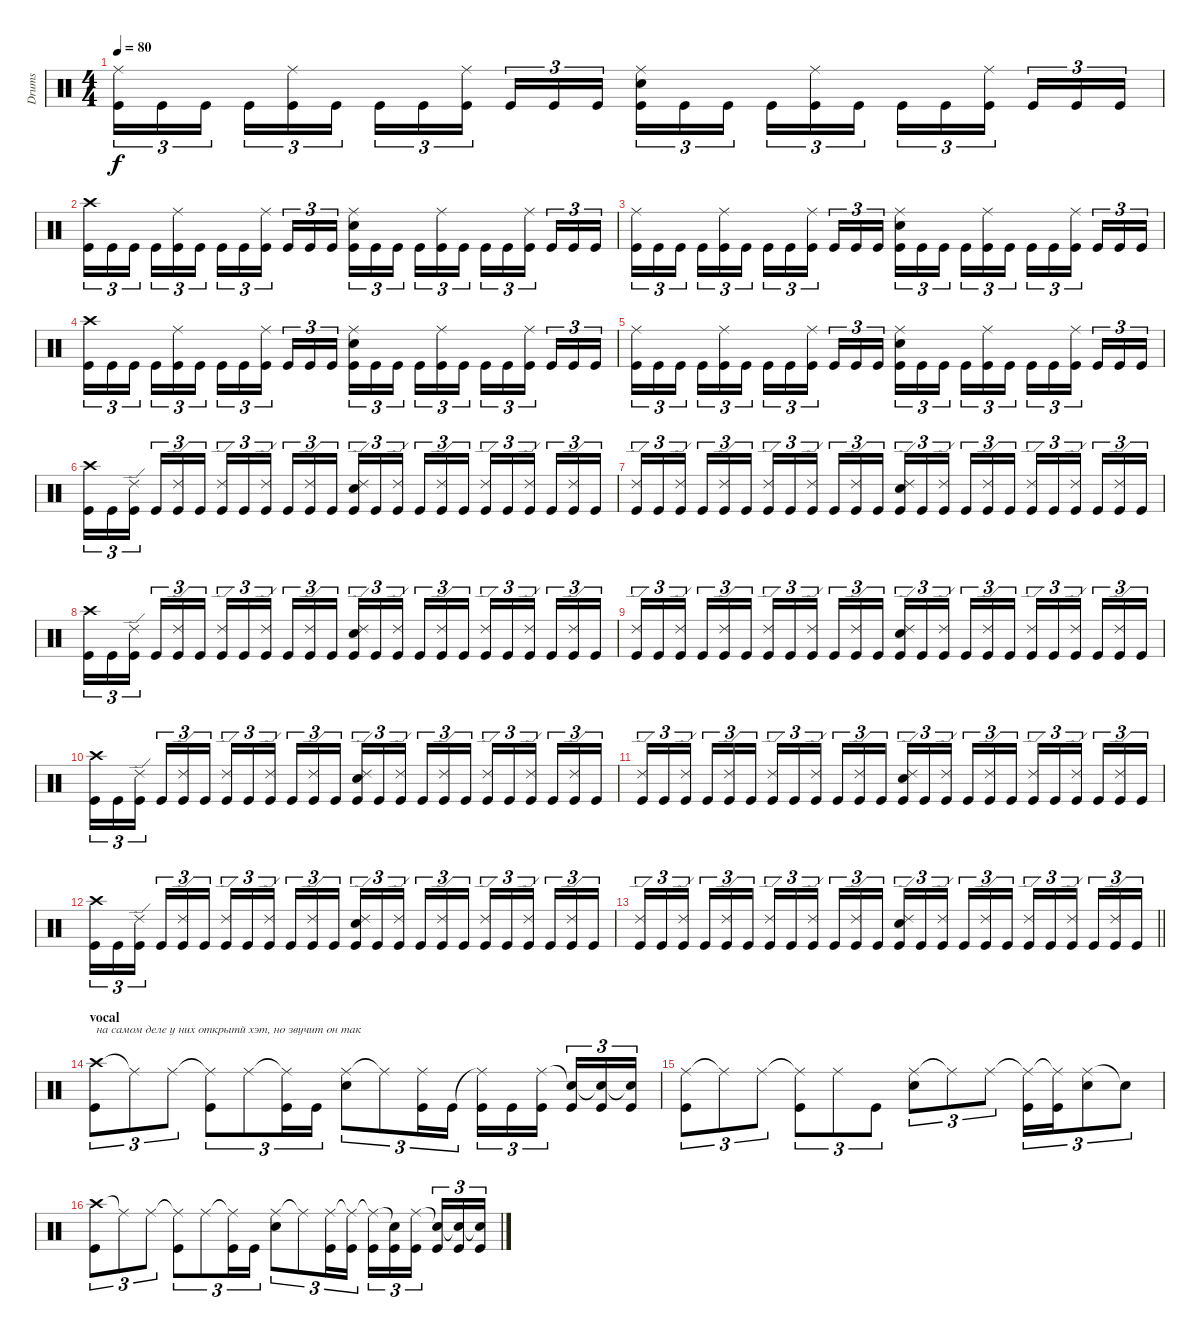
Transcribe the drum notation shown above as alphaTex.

\track ("Drums" "Drums") {instrument percussion}
\staff {score}
\articulation defaults
\ts (4 4)
\tempo 80
\clef neutral
\ks c
("Ride (middle)" "Kick (hit)").16{tu (3 2) dy f} "Kick (hit)".16{tu (3 2)} "Kick (hit)".16{tu (3 2) beam splitsecondary} "Kick (hit)".16{tu (3 2)} ("Ride (middle)" "Kick (hit)").16{tu (3 2)} "Kick (hit)".16{tu (3 2)} "Kick (hit)".16{tu (3 2)} "Kick (hit)".16{tu (3 2)} ("Ride (middle)" "Kick (hit)").16{tu (3 2) beam splitsecondary} "Kick (hit)".16{tu (3 2)} "Kick (hit)".16{tu (3 2)} "Kick (hit)".16{tu (3 2)} ("Ride (middle)" "Snare (hit) 2" "Kick (hit)").16{tu (3 2)} "Kick (hit)".16{tu (3 2)} "Kick (hit)".16{tu (3 2) beam splitsecondary} "Kick (hit)".16{tu (3 2)} ("Ride (middle)" "Kick (hit)").16{tu (3 2)} "Kick (hit)".16{tu (3 2)} "Kick (hit)".16{tu (3 2)} "Kick (hit)".16{tu (3 2)} ("Ride (middle)" "Kick (hit)").16{tu (3 2) beam splitsecondary} "Kick (hit)".16{tu (3 2)} "Kick (hit)".16{tu (3 2)} "Kick (hit)".16{tu (3 2)} |
("Crash high (hit)" "Kick (hit)").16{tu (3 2)} "Kick (hit)".16{tu (3 2)} "Kick (hit)".16{tu (3 2) beam splitsecondary} "Kick (hit)".16{tu (3 2)} ("Ride (middle)" "Kick (hit)").16{tu (3 2)} "Kick (hit)".16{tu (3 2)} "Kick (hit)".16{tu (3 2)} "Kick (hit)".16{tu (3 2)} ("Ride (middle)" "Kick (hit)").16{tu (3 2) beam splitsecondary} "Kick (hit)".16{tu (3 2)} "Kick (hit)".16{tu (3 2)} "Kick (hit)".16{tu (3 2)} ("Ride (middle)" "Snare (hit) 2" "Kick (hit)").16{tu (3 2)} "Kick (hit)".16{tu (3 2)} "Kick (hit)".16{tu (3 2) beam splitsecondary} "Kick (hit)".16{tu (3 2)} ("Ride (middle)" "Kick (hit)").16{tu (3 2)} "Kick (hit)".16{tu (3 2)} "Kick (hit)".16{tu (3 2)} "Kick (hit)".16{tu (3 2)} ("Ride (middle)" "Kick (hit)").16{tu (3 2) beam splitsecondary} "Kick (hit)".16{tu (3 2)} "Kick (hit)".16{tu (3 2)} "Kick (hit)".16{tu (3 2)} |
("Ride (middle)" "Kick (hit)").16{tu (3 2)} "Kick (hit)".16{tu (3 2)} "Kick (hit)".16{tu (3 2) beam splitsecondary} "Kick (hit)".16{tu (3 2)} ("Ride (middle)" "Kick (hit)").16{tu (3 2)} "Kick (hit)".16{tu (3 2)} "Kick (hit)".16{tu (3 2)} "Kick (hit)".16{tu (3 2)} ("Ride (middle)" "Kick (hit)").16{tu (3 2) beam splitsecondary} "Kick (hit)".16{tu (3 2)} "Kick (hit)".16{tu (3 2)} "Kick (hit)".16{tu (3 2)} ("Ride (middle)" "Snare (hit) 2" "Kick (hit)").16{tu (3 2)} "Kick (hit)".16{tu (3 2)} "Kick (hit)".16{tu (3 2) beam splitsecondary} "Kick (hit)".16{tu (3 2)} ("Ride (middle)" "Kick (hit)").16{tu (3 2)} "Kick (hit)".16{tu (3 2)} "Kick (hit)".16{tu (3 2)} "Kick (hit)".16{tu (3 2)} ("Ride (middle)" "Kick (hit)").16{tu (3 2) beam splitsecondary} "Kick (hit)".16{tu (3 2)} "Kick (hit)".16{tu (3 2)} "Kick (hit)".16{tu (3 2)} |
("Crash high (hit)" "Kick (hit)").16{tu (3 2)} "Kick (hit)".16{tu (3 2)} "Kick (hit)".16{tu (3 2) beam splitsecondary} "Kick (hit)".16{tu (3 2)} ("Ride (middle)" "Kick (hit)").16{tu (3 2)} "Kick (hit)".16{tu (3 2)} "Kick (hit)".16{tu (3 2)} "Kick (hit)".16{tu (3 2)} ("Ride (middle)" "Kick (hit)").16{tu (3 2) beam splitsecondary} "Kick (hit)".16{tu (3 2)} "Kick (hit)".16{tu (3 2)} "Kick (hit)".16{tu (3 2)} ("Ride (middle)" "Snare (hit) 2" "Kick (hit)").16{tu (3 2)} "Kick (hit)".16{tu (3 2)} "Kick (hit)".16{tu (3 2) beam splitsecondary} "Kick (hit)".16{tu (3 2)} ("Ride (middle)" "Kick (hit)").16{tu (3 2)} "Kick (hit)".16{tu (3 2)} "Kick (hit)".16{tu (3 2)} "Kick (hit)".16{tu (3 2)} ("Ride (middle)" "Kick (hit)").16{tu (3 2) beam splitsecondary} "Kick (hit)".16{tu (3 2)} "Kick (hit)".16{tu (3 2)} "Kick (hit)".16{tu (3 2)} |
("Ride (middle)" "Kick (hit)").16{tu (3 2)} "Kick (hit)".16{tu (3 2)} "Kick (hit)".16{tu (3 2) beam splitsecondary} "Kick (hit)".16{tu (3 2)} ("Ride (middle)" "Kick (hit)").16{tu (3 2)} "Kick (hit)".16{tu (3 2)} "Kick (hit)".16{tu (3 2)} "Kick (hit)".16{tu (3 2)} ("Ride (middle)" "Kick (hit)").16{tu (3 2) beam splitsecondary} "Kick (hit)".16{tu (3 2)} "Kick (hit)".16{tu (3 2)} "Kick (hit)".16{tu (3 2)} ("Ride (middle)" "Snare (hit) 2" "Kick (hit)").16{tu (3 2)} "Kick (hit)".16{tu (3 2)} "Kick (hit)".16{tu (3 2) beam splitsecondary} "Kick (hit)".16{tu (3 2)} ("Ride (middle)" "Kick (hit)").16{tu (3 2)} "Kick (hit)".16{tu (3 2)} "Kick (hit)".16{tu (3 2)} "Kick (hit)".16{tu (3 2)} ("Ride (middle)" "Kick (hit)").16{tu (3 2) beam splitsecondary} "Kick (hit)".16{tu (3 2)} "Kick (hit)".16{tu (3 2)} "Kick (hit)".16{tu (3 2)} |
("Crash high (hit)" "Kick (hit)").16{tu (3 2)} "Kick (hit)".16{tu (3 2)} ("Ride (edge) 2" "Kick (hit)").16{tu (3 2) beam splitsecondary} "Kick (hit)".16{tu (3 2)} ("Ride (edge) 2" "Kick (hit)").16{tu (3 2)} "Kick (hit)".16{tu (3 2)} ("Ride (edge) 2" "Kick (hit)").16{tu (3 2)} "Kick (hit)".16{tu (3 2)} ("Ride (edge) 2" "Kick (hit)").16{tu (3 2) beam splitsecondary} "Kick (hit)".16{tu (3 2)} ("Ride (edge) 2" "Kick (hit)").16{tu (3 2)} "Kick (hit)".16{tu (3 2)} ("Ride (edge) 2" "Snare (hit) 2" "Kick (hit)").16{tu (3 2)} "Kick (hit)".16{tu (3 2)} ("Ride (edge) 2" "Kick (hit)").16{tu (3 2) beam splitsecondary} "Kick (hit)".16{tu (3 2)} ("Ride (edge) 2" "Kick (hit)").16{tu (3 2)} "Kick (hit)".16{tu (3 2)} ("Ride (edge) 2" "Kick (hit)").16{tu (3 2)} "Kick (hit)".16{tu (3 2)} ("Ride (edge) 2" "Kick (hit)").16{tu (3 2) beam splitsecondary} "Kick (hit)".16{tu (3 2)} ("Ride (edge) 2" "Kick (hit)").16{tu (3 2)} "Kick (hit)".16{tu (3 2)} |
("Ride (edge) 2" "Kick (hit)").16{tu (3 2)} "Kick (hit)".16{tu (3 2)} ("Ride (edge) 2" "Kick (hit)").16{tu (3 2) beam splitsecondary} "Kick (hit)".16{tu (3 2)} ("Ride (edge) 2" "Kick (hit)").16{tu (3 2)} "Kick (hit)".16{tu (3 2)} ("Ride (edge) 2" "Kick (hit)").16{tu (3 2)} "Kick (hit)".16{tu (3 2)} ("Ride (edge) 2" "Kick (hit)").16{tu (3 2) beam splitsecondary} "Kick (hit)".16{tu (3 2)} ("Ride (edge) 2" "Kick (hit)").16{tu (3 2)} "Kick (hit)".16{tu (3 2)} ("Ride (edge) 2" "Snare (hit) 2" "Kick (hit)").16{tu (3 2)} "Kick (hit)".16{tu (3 2)} ("Ride (edge) 2" "Kick (hit)").16{tu (3 2) beam splitsecondary} "Kick (hit)".16{tu (3 2)} ("Ride (edge) 2" "Kick (hit)").16{tu (3 2)} "Kick (hit)".16{tu (3 2)} ("Ride (edge) 2" "Kick (hit)").16{tu (3 2)} "Kick (hit)".16{tu (3 2)} ("Ride (edge) 2" "Kick (hit)").16{tu (3 2) beam splitsecondary} "Kick (hit)".16{tu (3 2)} ("Ride (edge) 2" "Kick (hit)").16{tu (3 2)} "Kick (hit)".16{tu (3 2)} |
("Crash high (hit)" "Kick (hit)").16{tu (3 2)} "Kick (hit)".16{tu (3 2)} ("Ride (edge) 2" "Kick (hit)").16{tu (3 2) beam splitsecondary} "Kick (hit)".16{tu (3 2)} ("Ride (edge) 2" "Kick (hit)").16{tu (3 2)} "Kick (hit)".16{tu (3 2)} ("Ride (edge) 2" "Kick (hit)").16{tu (3 2)} "Kick (hit)".16{tu (3 2)} ("Ride (edge) 2" "Kick (hit)").16{tu (3 2) beam splitsecondary} "Kick (hit)".16{tu (3 2)} ("Ride (edge) 2" "Kick (hit)").16{tu (3 2)} "Kick (hit)".16{tu (3 2)} ("Ride (edge) 2" "Snare (hit) 2" "Kick (hit)").16{tu (3 2)} "Kick (hit)".16{tu (3 2)} ("Ride (edge) 2" "Kick (hit)").16{tu (3 2) beam splitsecondary} "Kick (hit)".16{tu (3 2)} ("Ride (edge) 2" "Kick (hit)").16{tu (3 2)} "Kick (hit)".16{tu (3 2)} ("Ride (edge) 2" "Kick (hit)").16{tu (3 2)} "Kick (hit)".16{tu (3 2)} ("Ride (edge) 2" "Kick (hit)").16{tu (3 2) beam splitsecondary} "Kick (hit)".16{tu (3 2)} ("Ride (edge) 2" "Kick (hit)").16{tu (3 2)} "Kick (hit)".16{tu (3 2)} |
("Ride (edge) 2" "Kick (hit)").16{tu (3 2)} "Kick (hit)".16{tu (3 2)} ("Ride (edge) 2" "Kick (hit)").16{tu (3 2) beam splitsecondary} "Kick (hit)".16{tu (3 2)} ("Ride (edge) 2" "Kick (hit)").16{tu (3 2)} "Kick (hit)".16{tu (3 2)} ("Ride (edge) 2" "Kick (hit)").16{tu (3 2)} "Kick (hit)".16{tu (3 2)} ("Ride (edge) 2" "Kick (hit)").16{tu (3 2) beam splitsecondary} "Kick (hit)".16{tu (3 2)} ("Ride (edge) 2" "Kick (hit)").16{tu (3 2)} "Kick (hit)".16{tu (3 2)} ("Ride (edge) 2" "Snare (hit) 2" "Kick (hit)").16{tu (3 2)} "Kick (hit)".16{tu (3 2)} ("Ride (edge) 2" "Kick (hit)").16{tu (3 2) beam splitsecondary} "Kick (hit)".16{tu (3 2)} ("Ride (edge) 2" "Kick (hit)").16{tu (3 2)} "Kick (hit)".16{tu (3 2)} ("Ride (edge) 2" "Kick (hit)").16{tu (3 2)} "Kick (hit)".16{tu (3 2)} ("Ride (edge) 2" "Kick (hit)").16{tu (3 2) beam splitsecondary} "Kick (hit)".16{tu (3 2)} ("Ride (edge) 2" "Kick (hit)").16{tu (3 2)} "Kick (hit)".16{tu (3 2)} |
("Crash high (hit)" "Kick (hit)").16{tu (3 2)} "Kick (hit)".16{tu (3 2)} ("Ride (edge) 2" "Kick (hit)").16{tu (3 2) beam splitsecondary} "Kick (hit)".16{tu (3 2)} ("Ride (edge) 2" "Kick (hit)").16{tu (3 2)} "Kick (hit)".16{tu (3 2)} ("Ride (edge) 2" "Kick (hit)").16{tu (3 2)} "Kick (hit)".16{tu (3 2)} ("Ride (edge) 2" "Kick (hit)").16{tu (3 2) beam splitsecondary} "Kick (hit)".16{tu (3 2)} ("Ride (edge) 2" "Kick (hit)").16{tu (3 2)} "Kick (hit)".16{tu (3 2)} ("Ride (edge) 2" "Snare (hit) 2" "Kick (hit)").16{tu (3 2)} "Kick (hit)".16{tu (3 2)} ("Ride (edge) 2" "Kick (hit)").16{tu (3 2) beam splitsecondary} "Kick (hit)".16{tu (3 2)} ("Ride (edge) 2" "Kick (hit)").16{tu (3 2)} "Kick (hit)".16{tu (3 2)} ("Ride (edge) 2" "Kick (hit)").16{tu (3 2)} "Kick (hit)".16{tu (3 2)} ("Ride (edge) 2" "Kick (hit)").16{tu (3 2) beam splitsecondary} "Kick (hit)".16{tu (3 2)} ("Ride (edge) 2" "Kick (hit)").16{tu (3 2)} "Kick (hit)".16{tu (3 2)} |
("Ride (edge) 2" "Kick (hit)").16{tu (3 2)} "Kick (hit)".16{tu (3 2)} ("Ride (edge) 2" "Kick (hit)").16{tu (3 2) beam splitsecondary} "Kick (hit)".16{tu (3 2)} ("Ride (edge) 2" "Kick (hit)").16{tu (3 2)} "Kick (hit)".16{tu (3 2)} ("Ride (edge) 2" "Kick (hit)").16{tu (3 2)} "Kick (hit)".16{tu (3 2)} ("Ride (edge) 2" "Kick (hit)").16{tu (3 2) beam splitsecondary} "Kick (hit)".16{tu (3 2)} ("Ride (edge) 2" "Kick (hit)").16{tu (3 2)} "Kick (hit)".16{tu (3 2)} ("Ride (edge) 2" "Snare (hit) 2" "Kick (hit)").16{tu (3 2)} "Kick (hit)".16{tu (3 2)} ("Ride (edge) 2" "Kick (hit)").16{tu (3 2) beam splitsecondary} "Kick (hit)".16{tu (3 2)} ("Ride (edge) 2" "Kick (hit)").16{tu (3 2)} "Kick (hit)".16{tu (3 2)} ("Ride (edge) 2" "Kick (hit)").16{tu (3 2)} "Kick (hit)".16{tu (3 2)} ("Ride (edge) 2" "Kick (hit)").16{tu (3 2) beam splitsecondary} "Kick (hit)".16{tu (3 2)} ("Ride (edge) 2" "Kick (hit)").16{tu (3 2)} "Kick (hit)".16{tu (3 2)} |
("Crash high (hit)" "Kick (hit)").16{tu (3 2)} "Kick (hit)".16{tu (3 2)} ("Ride (edge) 2" "Kick (hit)").16{tu (3 2) beam splitsecondary} "Kick (hit)".16{tu (3 2)} ("Ride (edge) 2" "Kick (hit)").16{tu (3 2)} "Kick (hit)".16{tu (3 2)} ("Ride (edge) 2" "Kick (hit)").16{tu (3 2)} "Kick (hit)".16{tu (3 2)} ("Ride (edge) 2" "Kick (hit)").16{tu (3 2) beam splitsecondary} "Kick (hit)".16{tu (3 2)} ("Ride (edge) 2" "Kick (hit)").16{tu (3 2)} "Kick (hit)".16{tu (3 2)} ("Ride (edge) 2" "Snare (hit) 2" "Kick (hit)").16{tu (3 2)} "Kick (hit)".16{tu (3 2)} ("Ride (edge) 2" "Kick (hit)").16{tu (3 2) beam splitsecondary} "Kick (hit)".16{tu (3 2)} ("Ride (edge) 2" "Kick (hit)").16{tu (3 2)} "Kick (hit)".16{tu (3 2)} ("Ride (edge) 2" "Kick (hit)").16{tu (3 2)} "Kick (hit)".16{tu (3 2)} ("Ride (edge) 2" "Kick (hit)").16{tu (3 2) beam splitsecondary} "Kick (hit)".16{tu (3 2)} ("Ride (edge) 2" "Kick (hit)").16{tu (3 2)} "Kick (hit)".16{tu (3 2)} |
\barLineRight lightlight
("Ride (edge) 2" "Kick (hit)").16{tu (3 2)} "Kick (hit)".16{tu (3 2)} ("Ride (edge) 2" "Kick (hit)").16{tu (3 2) beam splitsecondary} "Kick (hit)".16{tu (3 2)} ("Ride (edge) 2" "Kick (hit)").16{tu (3 2)} "Kick (hit)".16{tu (3 2)} ("Ride (edge) 2" "Kick (hit)").16{tu (3 2)} "Kick (hit)".16{tu (3 2)} ("Ride (edge) 2" "Kick (hit)").16{tu (3 2) beam splitsecondary} "Kick (hit)".16{tu (3 2)} ("Ride (edge) 2" "Kick (hit)").16{tu (3 2)} "Kick (hit)".16{tu (3 2)} ("Ride (edge) 2" "Snare (hit) 2" "Kick (hit)").16{tu (3 2)} "Kick (hit)".16{tu (3 2)} ("Ride (edge) 2" "Kick (hit)").16{tu (3 2) beam splitsecondary} "Kick (hit)".16{tu (3 2)} ("Ride (edge) 2" "Kick (hit)").16{tu (3 2)} "Kick (hit)".16{tu (3 2)} ("Ride (edge) 2" "Kick (hit)").16{tu (3 2)} "Kick (hit)".16{tu (3 2)} ("Ride (edge) 2" "Kick (hit)").16{tu (3 2) beam splitsecondary} "Kick (hit)".16{tu (3 2)} ("Ride (edge) 2" "Kick (hit)").16{tu (3 2)} "Kick (hit)".16{tu (3 2)} |
\section ("" "vocal")
("Crash high (hit)" "Kick (hit)").8{tu (3 2) txt "на самом деле у них открытй хэт, но звучит он так"} "Ride (middle)"{t}.8{tu (3 2)} "Ride (middle)".8{tu (3 2)} ("Ride (middle)"{t} "Kick (hit)").8{tu (3 2)} "Ride (middle)".8{tu (3 2)} ("Ride (middle)"{t} "Kick (hit)").16{tu (3 2)} "Kick (hit)".16{tu (3 2)} ("Ride (middle)" "Snare (hit) 2").8{tu (3 2)} "Ride (middle)"{t}.8{tu (3 2)} ("Ride (middle)" "Kick (hit)").16{tu (3 2)} "Kick (hit)".16{tu (3 2)} ("Ride (middle)"{t} "Kick (hit)").16{tu (3 2)} "Kick (hit)".16{tu (3 2)} ("Ride (middle)" "Kick (hit)").16{tu (3 2) beam splitsecondary} ("Snare (hit)"{t} "Kick (hit)").16{tu (3 2)} ("Snare (hit)"{t} "Kick (hit)").16{tu (3 2)} ("Snare (hit)"{t} "Kick (hit)").16{tu (3 2)} |
("Ride (middle)" "Kick (hit)").8{tu (3 2)} "Ride (middle)"{t}.8{tu (3 2)} "Ride (middle)".8{tu (3 2)} ("Ride (middle)"{t} "Kick (hit)").8{tu (3 2)} "Ride (middle)".8{tu (3 2)} "Kick (hit)".8{tu (3 2)} ("Ride (middle)" "Snare (hit) 2").8{tu (3 2)} "Ride (middle)"{t}.8{tu (3 2)} "Ride (middle)".8{tu (3 2)} ("Ride (middle)"{t} "Kick (hit)").16{tu (3 2)} ("Ride (middle)"{t} "Kick (hit)").16{tu (3 2)} ("Ride (middle)" "Snare (hit) 2").8{tu (3 2)} "Snare (hit)"{t}.8{tu (3 2)} |
("Crash high (hit)" "Kick (hit)").8{tu (3 2)} "Ride (middle)"{t}.8{tu (3 2)} "Ride (middle)".8{tu (3 2)} ("Ride (middle)"{t} "Kick (hit)").8{tu (3 2)} "Ride (middle)".8{tu (3 2)} ("Ride (middle)"{t} "Kick (hit)").16{tu (3 2)} "Kick (hit)".16{tu (3 2)} ("Ride (middle)" "Snare (hit) 2").8{tu (3 2)} "Ride (middle)"{t}.8{tu (3 2)} ("Ride (middle)" "Kick (hit)").16{tu (3 2)} ("Ride (middle)"{t} "Kick (hit)").16{tu (3 2)} ("Ride (middle)"{t} "Kick (hit)").16{tu (3 2)} ("Snare (hit)"{t} "Kick (hit)").16{tu (3 2)} ("Ride (middle)" "Kick (hit)").16{tu (3 2) beam splitsecondary} ("Snare (hit)"{t} "Kick (hit)").16{tu (3 2)} ("Snare (hit)"{t} "Kick (hit)").16{tu (3 2)} ("Snare (hit)"{t} "Kick (hit)").16{tu (3 2)}
